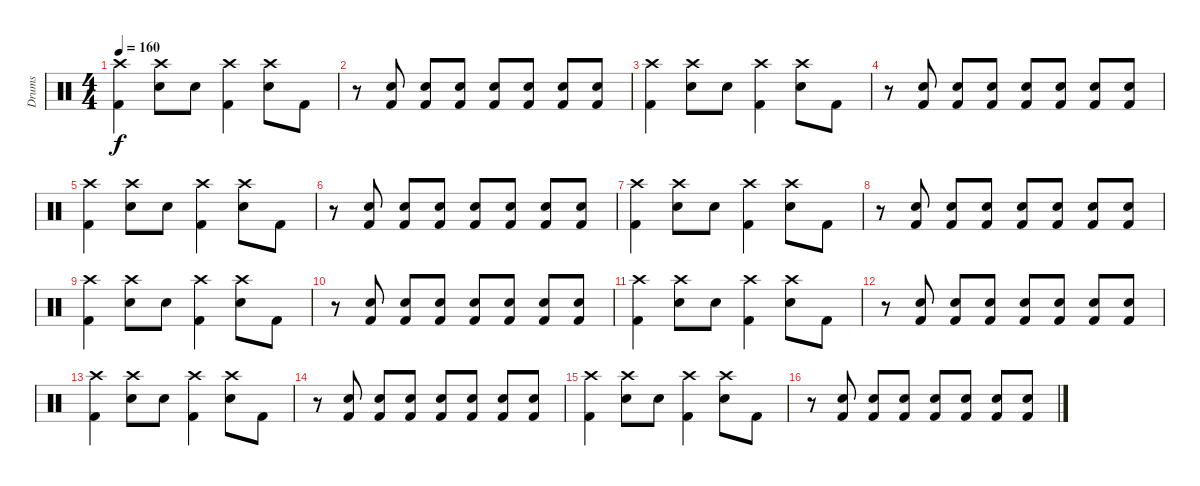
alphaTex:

\track ("Drums" "Drums") {instrument percussion}
\staff {score}
\articulation defaults
\ts (4 4)
\tempo 160
\clef neutral
\ks c
("Crash high (hit)" "Kick (hit) 2").4{dy f} ("Crash high (hit)" "Electric Snare (hit)").8 "Electric Snare (hit)".8 ("Crash high (hit)" "Kick (hit) 2").4 ("Crash high (hit)" "Electric Snare (hit)").8 "Kick (hit) 2".8 |
r.8 ("Electric Snare (hit)" "Kick (hit) 2").8 ("Electric Snare (hit)" "Kick (hit) 2").8 ("Electric Snare (hit)" "Kick (hit) 2").8 ("Electric Snare (hit)" "Kick (hit) 2").8 ("Electric Snare (hit)" "Kick (hit) 2").8 ("Electric Snare (hit)" "Kick (hit) 2").8 ("Electric Snare (hit)" "Kick (hit) 2").8 |
("Crash high (hit)" "Kick (hit) 2").4 ("Crash high (hit)" "Electric Snare (hit)").8 "Electric Snare (hit)".8 ("Crash high (hit)" "Kick (hit) 2").4 ("Crash high (hit)" "Electric Snare (hit)").8 "Kick (hit) 2".8 |
r.8 ("Electric Snare (hit)" "Kick (hit) 2").8 ("Electric Snare (hit)" "Kick (hit) 2").8 ("Electric Snare (hit)" "Kick (hit) 2").8 ("Electric Snare (hit)" "Kick (hit) 2").8 ("Electric Snare (hit)" "Kick (hit) 2").8 ("Electric Snare (hit)" "Kick (hit) 2").8 ("Electric Snare (hit)" "Kick (hit) 2").8 |
("Crash high (hit)" "Kick (hit) 2").4 ("Crash high (hit)" "Electric Snare (hit)").8 "Electric Snare (hit)".8 ("Crash high (hit)" "Kick (hit) 2").4 ("Crash high (hit)" "Electric Snare (hit)").8 "Kick (hit) 2".8 |
r.8 ("Electric Snare (hit)" "Kick (hit) 2").8 ("Electric Snare (hit)" "Kick (hit) 2").8 ("Electric Snare (hit)" "Kick (hit) 2").8 ("Electric Snare (hit)" "Kick (hit) 2").8 ("Electric Snare (hit)" "Kick (hit) 2").8 ("Electric Snare (hit)" "Kick (hit) 2").8 ("Electric Snare (hit)" "Kick (hit) 2").8 |
("Crash high (hit)" "Kick (hit) 2").4 ("Crash high (hit)" "Electric Snare (hit)").8 "Electric Snare (hit)".8 ("Crash high (hit)" "Kick (hit) 2").4 ("Crash high (hit)" "Electric Snare (hit)").8 "Kick (hit) 2".8 |
r.8 ("Electric Snare (hit)" "Kick (hit) 2").8 ("Electric Snare (hit)" "Kick (hit) 2").8 ("Electric Snare (hit)" "Kick (hit) 2").8 ("Electric Snare (hit)" "Kick (hit) 2").8 ("Electric Snare (hit)" "Kick (hit) 2").8 ("Electric Snare (hit)" "Kick (hit) 2").8 ("Electric Snare (hit)" "Kick (hit) 2").8 |
("Crash high (hit)" "Kick (hit) 2").4 ("Crash high (hit)" "Electric Snare (hit)").8 "Electric Snare (hit)".8 ("Crash high (hit)" "Kick (hit) 2").4 ("Crash high (hit)" "Electric Snare (hit)").8 "Kick (hit) 2".8 |
r.8 ("Electric Snare (hit)" "Kick (hit) 2").8 ("Electric Snare (hit)" "Kick (hit) 2").8 ("Electric Snare (hit)" "Kick (hit) 2").8 ("Electric Snare (hit)" "Kick (hit) 2").8 ("Electric Snare (hit)" "Kick (hit) 2").8 ("Electric Snare (hit)" "Kick (hit) 2").8 ("Electric Snare (hit)" "Kick (hit) 2").8 |
("Crash high (hit)" "Kick (hit) 2").4 ("Crash high (hit)" "Electric Snare (hit)").8 "Electric Snare (hit)".8 ("Crash high (hit)" "Kick (hit) 2").4 ("Crash high (hit)" "Electric Snare (hit)").8 "Kick (hit) 2".8 |
r.8 ("Electric Snare (hit)" "Kick (hit) 2").8 ("Electric Snare (hit)" "Kick (hit) 2").8 ("Electric Snare (hit)" "Kick (hit) 2").8 ("Electric Snare (hit)" "Kick (hit) 2").8 ("Electric Snare (hit)" "Kick (hit) 2").8 ("Electric Snare (hit)" "Kick (hit) 2").8 ("Electric Snare (hit)" "Kick (hit) 2").8 |
("Crash high (hit)" "Kick (hit) 2").4 ("Crash high (hit)" "Electric Snare (hit)").8 "Electric Snare (hit)".8 ("Crash high (hit)" "Kick (hit) 2").4 ("Crash high (hit)" "Electric Snare (hit)").8 "Kick (hit) 2".8 |
r.8 ("Electric Snare (hit)" "Kick (hit) 2").8 ("Electric Snare (hit)" "Kick (hit) 2").8 ("Electric Snare (hit)" "Kick (hit) 2").8 ("Electric Snare (hit)" "Kick (hit) 2").8 ("Electric Snare (hit)" "Kick (hit) 2").8 ("Electric Snare (hit)" "Kick (hit) 2").8 ("Electric Snare (hit)" "Kick (hit) 2").8 |
("Crash high (hit)" "Kick (hit) 2").4 ("Crash high (hit)" "Electric Snare (hit)").8 "Electric Snare (hit)".8 ("Crash high (hit)" "Kick (hit) 2").4 ("Crash high (hit)" "Electric Snare (hit)").8 "Kick (hit) 2".8 |
r.8 ("Electric Snare (hit)" "Kick (hit) 2").8 ("Electric Snare (hit)" "Kick (hit) 2").8 ("Electric Snare (hit)" "Kick (hit) 2").8 ("Electric Snare (hit)" "Kick (hit) 2").8 ("Electric Snare (hit)" "Kick (hit) 2").8 ("Electric Snare (hit)" "Kick (hit) 2").8 ("Electric Snare (hit)" "Kick (hit) 2").8
